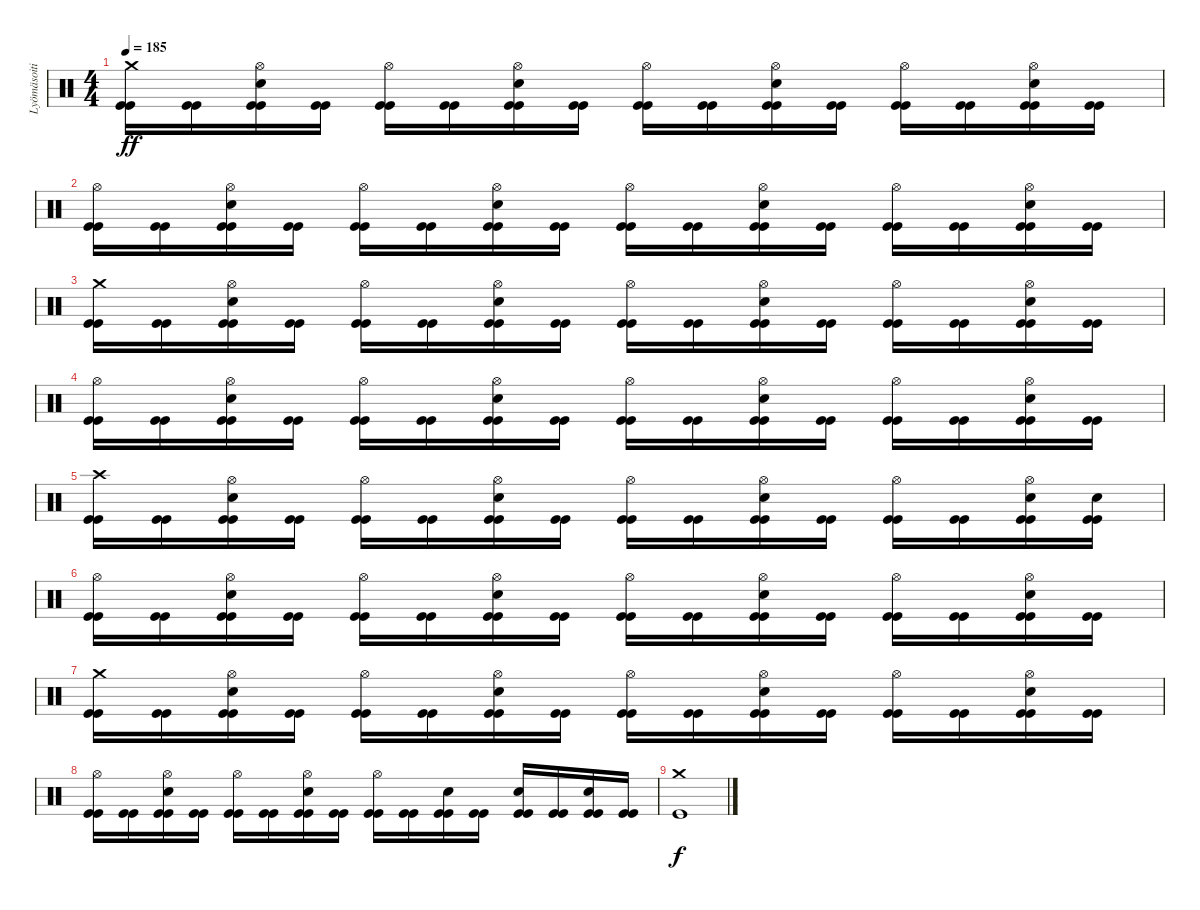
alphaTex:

\track ("Lyömäsoitin" "Lyömäsoiti") {instrument percussion}
\staff {score}
\articulation defaults
\ts (4 4)
\tempo 185
\clef neutral
\ks c
("Crash medium (hit)" "Kick (hit)" "Kick (hit)").16{dy ff} ("Kick (hit)" "Kick (hit)").16 ("Hi-Hat (open)" "Electric Snare (hit)" "Kick (hit)" "Kick (hit)").16 ("Kick (hit)" "Kick (hit)").16 ("Hi-Hat (open)" "Kick (hit)" "Kick (hit)").16 ("Kick (hit)" "Kick (hit)").16 ("Hi-Hat (open)" "Electric Snare (hit)" "Kick (hit)" "Kick (hit)").16 ("Kick (hit)" "Kick (hit)").16 ("Hi-Hat (open)" "Kick (hit)" "Kick (hit)").16 ("Kick (hit)" "Kick (hit)").16 ("Hi-Hat (open)" "Electric Snare (hit)" "Kick (hit)" "Kick (hit)").16 ("Kick (hit)" "Kick (hit)").16 ("Hi-Hat (open)" "Kick (hit)" "Kick (hit)").16 ("Kick (hit)" "Kick (hit)").16 ("Hi-Hat (open)" "Electric Snare (hit)" "Kick (hit)" "Kick (hit)").16 ("Kick (hit)" "Kick (hit)").16 |
("Hi-Hat (open)" "Kick (hit)" "Kick (hit)").16 ("Kick (hit)" "Kick (hit)").16 ("Hi-Hat (open)" "Electric Snare (hit)" "Kick (hit)" "Kick (hit)").16 ("Kick (hit)" "Kick (hit)").16 ("Hi-Hat (open)" "Kick (hit)" "Kick (hit)").16 ("Kick (hit)" "Kick (hit)").16 ("Hi-Hat (open)" "Electric Snare (hit)" "Kick (hit)" "Kick (hit)").16 ("Kick (hit)" "Kick (hit)").16 ("Hi-Hat (open)" "Kick (hit)" "Kick (hit)").16 ("Kick (hit)" "Kick (hit)").16 ("Hi-Hat (open)" "Electric Snare (hit)" "Kick (hit)" "Kick (hit)").16 ("Kick (hit)" "Kick (hit)").16 ("Hi-Hat (open)" "Kick (hit)" "Kick (hit)").16 ("Kick (hit)" "Kick (hit)").16 ("Hi-Hat (open)" "Electric Snare (hit)" "Kick (hit)" "Kick (hit)").16 ("Kick (hit)" "Kick (hit)").16 |
("Crash medium (hit)" "Kick (hit)" "Kick (hit)").16 ("Kick (hit)" "Kick (hit)").16 ("Hi-Hat (open)" "Electric Snare (hit)" "Kick (hit)" "Kick (hit)").16 ("Kick (hit)" "Kick (hit)").16 ("Hi-Hat (open)" "Kick (hit)" "Kick (hit)").16 ("Kick (hit)" "Kick (hit)").16 ("Hi-Hat (open)" "Electric Snare (hit)" "Kick (hit)" "Kick (hit)").16 ("Kick (hit)" "Kick (hit)").16 ("Hi-Hat (open)" "Kick (hit)" "Kick (hit)").16 ("Kick (hit)" "Kick (hit)").16 ("Hi-Hat (open)" "Electric Snare (hit)" "Kick (hit)" "Kick (hit)").16 ("Kick (hit)" "Kick (hit)").16 ("Hi-Hat (open)" "Kick (hit)" "Kick (hit)").16 ("Kick (hit)" "Kick (hit)").16 ("Hi-Hat (open)" "Electric Snare (hit)" "Kick (hit)" "Kick (hit)").16 ("Kick (hit)" "Kick (hit)").16 |
("Hi-Hat (open)" "Kick (hit)" "Kick (hit)").16 ("Kick (hit)" "Kick (hit)").16 ("Hi-Hat (open)" "Electric Snare (hit)" "Kick (hit)" "Kick (hit)").16 ("Kick (hit)" "Kick (hit)").16 ("Hi-Hat (open)" "Kick (hit)" "Kick (hit)").16 ("Kick (hit)" "Kick (hit)").16 ("Hi-Hat (open)" "Electric Snare (hit)" "Kick (hit)" "Kick (hit)").16 ("Kick (hit)" "Kick (hit)").16 ("Hi-Hat (open)" "Kick (hit)" "Kick (hit)").16 ("Kick (hit)" "Kick (hit)").16 ("Hi-Hat (open)" "Electric Snare (hit)" "Kick (hit)" "Kick (hit)").16 ("Kick (hit)" "Kick (hit)").16 ("Hi-Hat (open)" "Kick (hit)" "Kick (hit)").16 ("Kick (hit)" "Kick (hit)").16 ("Hi-Hat (open)" "Electric Snare (hit)" "Kick (hit)" "Kick (hit)").16 ("Kick (hit)" "Kick (hit)").16 |
("Crash high (hit)" "Kick (hit)" "Kick (hit)").16 ("Kick (hit)" "Kick (hit)").16 ("Hi-Hat (open)" "Electric Snare (hit)" "Kick (hit)" "Kick (hit)").16 ("Kick (hit)" "Kick (hit)").16 ("Hi-Hat (open)" "Kick (hit)" "Kick (hit)").16 ("Kick (hit)" "Kick (hit)").16 ("Hi-Hat (open)" "Electric Snare (hit)" "Kick (hit)" "Kick (hit)").16 ("Kick (hit)" "Kick (hit)").16 ("Hi-Hat (open)" "Kick (hit)" "Kick (hit)").16 ("Kick (hit)" "Kick (hit)").16 ("Hi-Hat (open)" "Electric Snare (hit)" "Kick (hit)" "Kick (hit)").16 ("Kick (hit)" "Kick (hit)").16 ("Hi-Hat (open)" "Kick (hit)" "Kick (hit)").16 ("Kick (hit)" "Kick (hit)").16 ("Hi-Hat (open)" "Electric Snare (hit)" "Kick (hit)" "Kick (hit)").16 ("Electric Snare (hit)" "Kick (hit)" "Kick (hit)").16 |
("Hi-Hat (open)" "Kick (hit)" "Kick (hit)").16 ("Kick (hit)" "Kick (hit)").16 ("Hi-Hat (open)" "Electric Snare (hit)" "Kick (hit)" "Kick (hit)").16 ("Kick (hit)" "Kick (hit)").16 ("Hi-Hat (open)" "Kick (hit)" "Kick (hit)").16 ("Kick (hit)" "Kick (hit)").16 ("Hi-Hat (open)" "Electric Snare (hit)" "Kick (hit)" "Kick (hit)").16 ("Kick (hit)" "Kick (hit)").16 ("Hi-Hat (open)" "Kick (hit)" "Kick (hit)").16 ("Kick (hit)" "Kick (hit)").16 ("Hi-Hat (open)" "Electric Snare (hit)" "Kick (hit)" "Kick (hit)").16 ("Kick (hit)" "Kick (hit)").16 ("Hi-Hat (open)" "Kick (hit)" "Kick (hit)").16 ("Kick (hit)" "Kick (hit)").16 ("Hi-Hat (open)" "Electric Snare (hit)" "Kick (hit)" "Kick (hit)").16 ("Kick (hit)" "Kick (hit)").16 |
("Crash medium (hit)" "Kick (hit)" "Kick (hit)").16 ("Kick (hit)" "Kick (hit)").16 ("Hi-Hat (open)" "Electric Snare (hit)" "Kick (hit)" "Kick (hit)").16 ("Kick (hit)" "Kick (hit)").16 ("Hi-Hat (open)" "Kick (hit)" "Kick (hit)").16 ("Kick (hit)" "Kick (hit)").16 ("Hi-Hat (open)" "Electric Snare (hit)" "Kick (hit)" "Kick (hit)").16 ("Kick (hit)" "Kick (hit)").16 ("Hi-Hat (open)" "Kick (hit)" "Kick (hit)").16 ("Kick (hit)" "Kick (hit)").16 ("Hi-Hat (open)" "Electric Snare (hit)" "Kick (hit)" "Kick (hit)").16 ("Kick (hit)" "Kick (hit)").16 ("Hi-Hat (open)" "Kick (hit)" "Kick (hit)").16 ("Kick (hit)" "Kick (hit)").16 ("Hi-Hat (open)" "Electric Snare (hit)" "Kick (hit)" "Kick (hit)").16 ("Kick (hit)" "Kick (hit)").16 |
("Hi-Hat (open)" "Kick (hit)" "Kick (hit)").16 ("Kick (hit)" "Kick (hit)").16 ("Hi-Hat (open)" "Electric Snare (hit)" "Kick (hit)" "Kick (hit)").16 ("Kick (hit)" "Kick (hit)").16 ("Hi-Hat (open)" "Kick (hit)" "Kick (hit)").16 ("Kick (hit)" "Kick (hit)").16 ("Hi-Hat (open)" "Electric Snare (hit)" "Kick (hit)" "Kick (hit)").16 ("Kick (hit)" "Kick (hit)").16 ("Hi-Hat (open)" "Kick (hit)" "Kick (hit)").16 ("Kick (hit)" "Kick (hit)").16 ("Electric Snare (hit)" "Kick (hit)" "Kick (hit)").16 ("Kick (hit)" "Kick (hit)").16 ("Electric Snare (hit)" "Kick (hit)" "Kick (hit)").16 ("Kick (hit)" "Kick (hit)").16 ("Electric Snare (hit)" "Kick (hit)" "Kick (hit)").16 ("Kick (hit)" "Kick (hit)").16 |
("Crash medium (hit)" "Kick (hit)").1{dy f volume 1}
